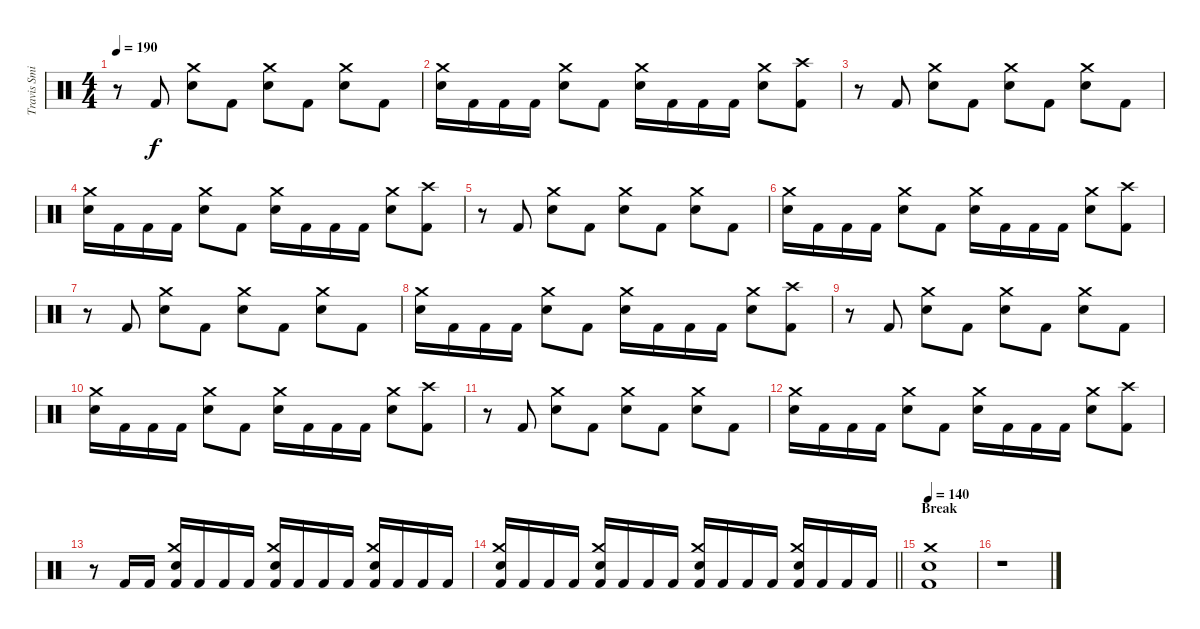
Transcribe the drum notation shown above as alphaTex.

\track ("Travis Smith" "Travis Smi") {instrument percussion}
\staff {score}
\articulation defaults
\ts (4 4)
\tempo 190
\clef neutral
\ks c
r.8{dy f} "Kick (hit) 2".8 ("Crash medium (hit)" "Electric Snare (hit)").8 "Kick (hit) 2".8 ("Crash medium (hit)" "Electric Snare (hit)").8 "Kick (hit) 2".8 ("Crash medium (hit)" "Electric Snare (hit)").8 "Kick (hit) 2".8 |
("Crash medium (hit)" "Electric Snare (hit)").16 "Kick (hit) 2".16 "Kick (hit) 2".16 "Kick (hit) 2".16 ("Crash medium (hit)" "Electric Snare (hit)").8 "Kick (hit) 2".8 ("Crash medium (hit)" "Electric Snare (hit)").16 "Kick (hit) 2".16 "Kick (hit) 2".16 "Kick (hit) 2".16 ("Crash medium (hit)" "Electric Snare (hit)").8 ("Crash high (hit)" "Kick (hit) 2").8 |
r.8 "Kick (hit) 2".8 ("Crash medium (hit)" "Electric Snare (hit)").8 "Kick (hit) 2".8 ("Crash medium (hit)" "Electric Snare (hit)").8 "Kick (hit) 2".8 ("Crash medium (hit)" "Electric Snare (hit)").8 "Kick (hit) 2".8 |
("Crash medium (hit)" "Electric Snare (hit)").16 "Kick (hit) 2".16 "Kick (hit) 2".16 "Kick (hit) 2".16 ("Crash medium (hit)" "Electric Snare (hit)").8 "Kick (hit) 2".8 ("Crash medium (hit)" "Electric Snare (hit)").16 "Kick (hit) 2".16 "Kick (hit) 2".16 "Kick (hit) 2".16 ("Crash medium (hit)" "Electric Snare (hit)").8 ("Crash high (hit)" "Kick (hit) 2").8 |
r.8 "Kick (hit) 2".8 ("Crash medium (hit)" "Electric Snare (hit)").8 "Kick (hit) 2".8 ("Crash medium (hit)" "Electric Snare (hit)").8 "Kick (hit) 2".8 ("Crash medium (hit)" "Electric Snare (hit)").8 "Kick (hit) 2".8 |
("Crash medium (hit)" "Electric Snare (hit)").16 "Kick (hit) 2".16 "Kick (hit) 2".16 "Kick (hit) 2".16 ("Crash medium (hit)" "Electric Snare (hit)").8 "Kick (hit) 2".8 ("Crash medium (hit)" "Electric Snare (hit)").16 "Kick (hit) 2".16 "Kick (hit) 2".16 "Kick (hit) 2".16 ("Crash medium (hit)" "Electric Snare (hit)").8 ("Crash high (hit)" "Kick (hit) 2").8 |
r.8 "Kick (hit) 2".8 ("Crash medium (hit)" "Electric Snare (hit)").8 "Kick (hit) 2".8 ("Crash medium (hit)" "Electric Snare (hit)").8 "Kick (hit) 2".8 ("Crash medium (hit)" "Electric Snare (hit)").8 "Kick (hit) 2".8 |
("Crash medium (hit)" "Electric Snare (hit)").16 "Kick (hit) 2".16 "Kick (hit) 2".16 "Kick (hit) 2".16 ("Crash medium (hit)" "Electric Snare (hit)").8 "Kick (hit) 2".8 ("Crash medium (hit)" "Electric Snare (hit)").16 "Kick (hit) 2".16 "Kick (hit) 2".16 "Kick (hit) 2".16 ("Crash medium (hit)" "Electric Snare (hit)").8 ("Crash high (hit)" "Kick (hit) 2").8 |
r.8 "Kick (hit) 2".8 ("Crash medium (hit)" "Electric Snare (hit)").8 "Kick (hit) 2".8 ("Crash medium (hit)" "Electric Snare (hit)").8 "Kick (hit) 2".8 ("Crash medium (hit)" "Electric Snare (hit)").8 "Kick (hit) 2".8 |
("Crash medium (hit)" "Electric Snare (hit)").16 "Kick (hit) 2".16 "Kick (hit) 2".16 "Kick (hit) 2".16 ("Crash medium (hit)" "Electric Snare (hit)").8 "Kick (hit) 2".8 ("Crash medium (hit)" "Electric Snare (hit)").16 "Kick (hit) 2".16 "Kick (hit) 2".16 "Kick (hit) 2".16 ("Crash medium (hit)" "Electric Snare (hit)").8 ("Crash high (hit)" "Kick (hit) 2").8 |
r.8 "Kick (hit) 2".8 ("Crash medium (hit)" "Electric Snare (hit)").8 "Kick (hit) 2".8 ("Crash medium (hit)" "Electric Snare (hit)").8 "Kick (hit) 2".8 ("Crash medium (hit)" "Electric Snare (hit)").8 "Kick (hit) 2".8 |
("Crash medium (hit)" "Electric Snare (hit)").16 "Kick (hit) 2".16 "Kick (hit) 2".16 "Kick (hit) 2".16 ("Crash medium (hit)" "Electric Snare (hit)").8 "Kick (hit) 2".8 ("Crash medium (hit)" "Electric Snare (hit)").16 "Kick (hit) 2".16 "Kick (hit) 2".16 "Kick (hit) 2".16 ("Crash medium (hit)" "Electric Snare (hit)").8 ("Crash high (hit)" "Kick (hit) 2").8 |
r.8 "Kick (hit) 2".16 "Kick (hit) 2".16 ("Crash medium (hit)" "Electric Snare (hit)" "Kick (hit) 2").16 "Kick (hit) 2".16 "Kick (hit) 2".16 "Kick (hit) 2".16 ("Crash medium (hit)" "Electric Snare (hit)" "Kick (hit) 2").16 "Kick (hit) 2".16 "Kick (hit) 2".16 "Kick (hit) 2".16 ("Crash medium (hit)" "Electric Snare (hit)" "Kick (hit) 2").16 "Kick (hit) 2".16 "Kick (hit) 2".16 "Kick (hit) 2".16 |
\barLineRight lightlight
("Crash medium (hit)" "Electric Snare (hit)" "Kick (hit) 2").16 "Kick (hit) 2".16 "Kick (hit) 2".16 "Kick (hit) 2".16 ("Crash medium (hit)" "Electric Snare (hit)" "Kick (hit) 2").16 "Kick (hit) 2".16 "Kick (hit) 2".16 "Kick (hit) 2".16 ("Crash medium (hit)" "Electric Snare (hit)" "Kick (hit) 2").16 "Kick (hit) 2".16 "Kick (hit) 2".16 "Kick (hit) 2".16 ("Crash medium (hit)" "Electric Snare (hit)" "Kick (hit) 2").16 "Kick (hit) 2".16 "Kick (hit) 2".16 "Kick (hit) 2".16 |
\section ("" "Break")
\tempo 140
("Crash medium (hit)" "Electric Snare (hit)" "Kick (hit) 2").1 |
r.1
